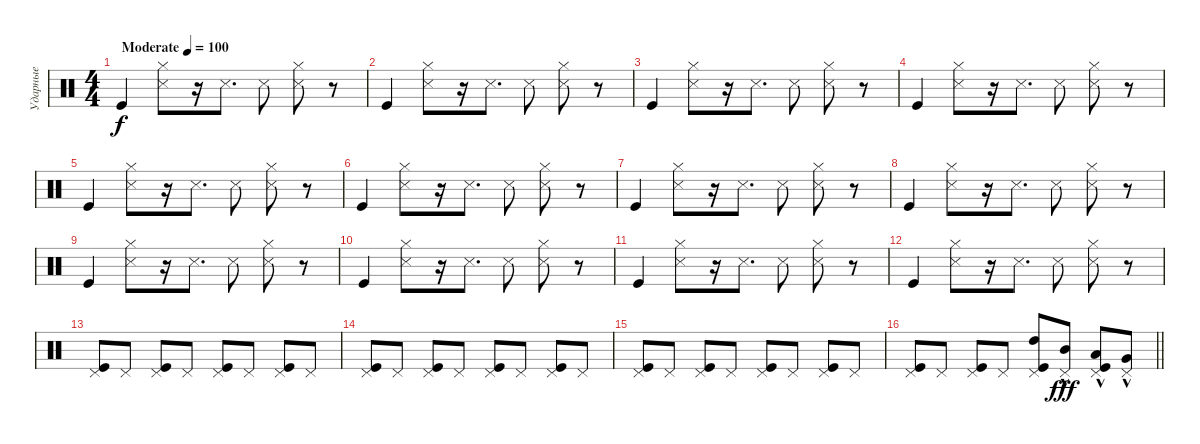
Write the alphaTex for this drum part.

\track ("Ударные" "Ударные") {instrument percussion}
\staff {score}
\articulation defaults
\ts (4 4)
\tempo (100 "Moderate")
\clef neutral
\ks c "Kick (hit)".4{dy f}
("Hi-Hat (closed)" "Snare (side stick) 3").8 r.16 "Snare (side stick) 3".8{d} "Snare (side stick) 3".8 ("Hi-Hat (closed)" "Snare (side stick) 3").8 r.8 |
"Kick (hit)".4 ("Snare (side stick) 3" "Hi-Hat (closed)").8 r.16 "Snare (side stick) 3".8{d} "Snare (side stick) 3".8 ("Snare (side stick) 3" "Hi-Hat (closed)").8 r.8 |
"Kick (hit)".4 ("Snare (side stick) 3" "Hi-Hat (closed)").8 r.16 "Snare (side stick) 3".8{d} "Snare (side stick) 3".8 ("Snare (side stick) 3" "Hi-Hat (closed)").8 r.8 |
"Kick (hit)".4 ("Hi-Hat (closed)" "Snare (side stick) 3").8 r.16 "Snare (side stick) 3".8{d} "Snare (side stick) 3".8 ("Snare (side stick) 3" "Hi-Hat (closed)").8 r.8 |
"Kick (hit)".4 ("Snare (side stick) 3" "Hi-Hat (closed)").8 r.16 "Snare (side stick) 3".8{d} "Snare (side stick) 3".8 ("Snare (side stick) 3" "Hi-Hat (closed)").8 r.8 |
"Kick (hit)".4 ("Hi-Hat (closed)" "Snare (side stick) 3").8 r.16 "Snare (side stick) 3".8{d} "Snare (side stick) 3".8 ("Snare (side stick) 3" "Hi-Hat (closed)").8 r.8 |
"Kick (hit)".4 ("Snare (side stick) 3" "Hi-Hat (closed)").8 r.16 "Snare (side stick) 3".8{d} "Snare (side stick) 3".8 ("Snare (side stick) 3" "Hi-Hat (closed)").8 r.8 |
"Kick (hit)".4 ("Snare (side stick) 3" "Hi-Hat (closed)").8 r.16 "Snare (side stick) 3".8{d} "Snare (side stick) 3".8 ("Snare (side stick) 3" "Hi-Hat (closed)").8 r.8 |
"Kick (hit)".4 ("Snare (side stick) 3" "Hi-Hat (closed)").8 r.16 "Snare (side stick) 3".8{d} "Snare (side stick) 3".8 ("Snare (side stick) 3" "Hi-Hat (closed)").8 r.8 |
"Kick (hit)".4 ("Snare (side stick) 3" "Hi-Hat (closed)").8 r.16 "Snare (side stick) 3".8{d} "Snare (side stick) 3".8 ("Snare (side stick) 3" "Hi-Hat (closed)").8 r.8 |
"Kick (hit)".4 ("Snare (side stick) 3" "Hi-Hat (closed)").8 r.16 "Snare (side stick) 3".8{d} "Snare (side stick) 3".8 ("Snare (side stick) 3" "Hi-Hat (closed)").8 r.8 |
"Kick (hit)".4 ("Snare (side stick) 3" "Hi-Hat (closed)").8 r.16 "Snare (side stick) 3".8{d} "Snare (side stick) 3".8 ("Snare (side stick) 3" "Hi-Hat (closed)").8 r.8 |
("Pedal Hi-Hat (hit)" "Kick (hit)").8 "Pedal Hi-Hat (hit)".8 ("Pedal Hi-Hat (hit)" "Kick (hit)").8 "Pedal Hi-Hat (hit)".8 ("Pedal Hi-Hat (hit)" "Kick (hit)").8 "Pedal Hi-Hat (hit)".8 ("Pedal Hi-Hat (hit)" "Kick (hit)").8 "Pedal Hi-Hat (hit)".8 |
("Pedal Hi-Hat (hit)" "Kick (hit)").8 "Pedal Hi-Hat (hit)".8 ("Pedal Hi-Hat (hit)" "Kick (hit)").8 "Pedal Hi-Hat (hit)".8 ("Pedal Hi-Hat (hit)" "Kick (hit)").8 "Pedal Hi-Hat (hit)".8 ("Pedal Hi-Hat (hit)" "Kick (hit)").8 "Pedal Hi-Hat (hit)".8 |
("Pedal Hi-Hat (hit)" "Kick (hit)").8 "Pedal Hi-Hat (hit)".8 ("Pedal Hi-Hat (hit)" "Kick (hit)").8 "Pedal Hi-Hat (hit)".8 ("Pedal Hi-Hat (hit)" "Kick (hit)").8 "Pedal Hi-Hat (hit)".8 ("Pedal Hi-Hat (hit)" "Kick (hit)").8 "Pedal Hi-Hat (hit)".8 |
\barLineRight lightlight
("Pedal Hi-Hat (hit)" "Kick (hit)").8 "Pedal Hi-Hat (hit)".8 ("Pedal Hi-Hat (hit)" "Kick (hit)").8 "Pedal Hi-Hat (hit)".8 ("Pedal Hi-Hat (hit)" "Kick (hit)" "High Tom (hit)").8 ("Pedal Hi-Hat (hit)" "Mid Tom (hit)"{hac}).8{dy fff} ("Pedal Hi-Hat (hit)" "Kick (hit)" "Low Tom (hit)"{hac}).8 ("Pedal Hi-Hat (hit)" "Very Low Tom (hit)"{hac}).8
